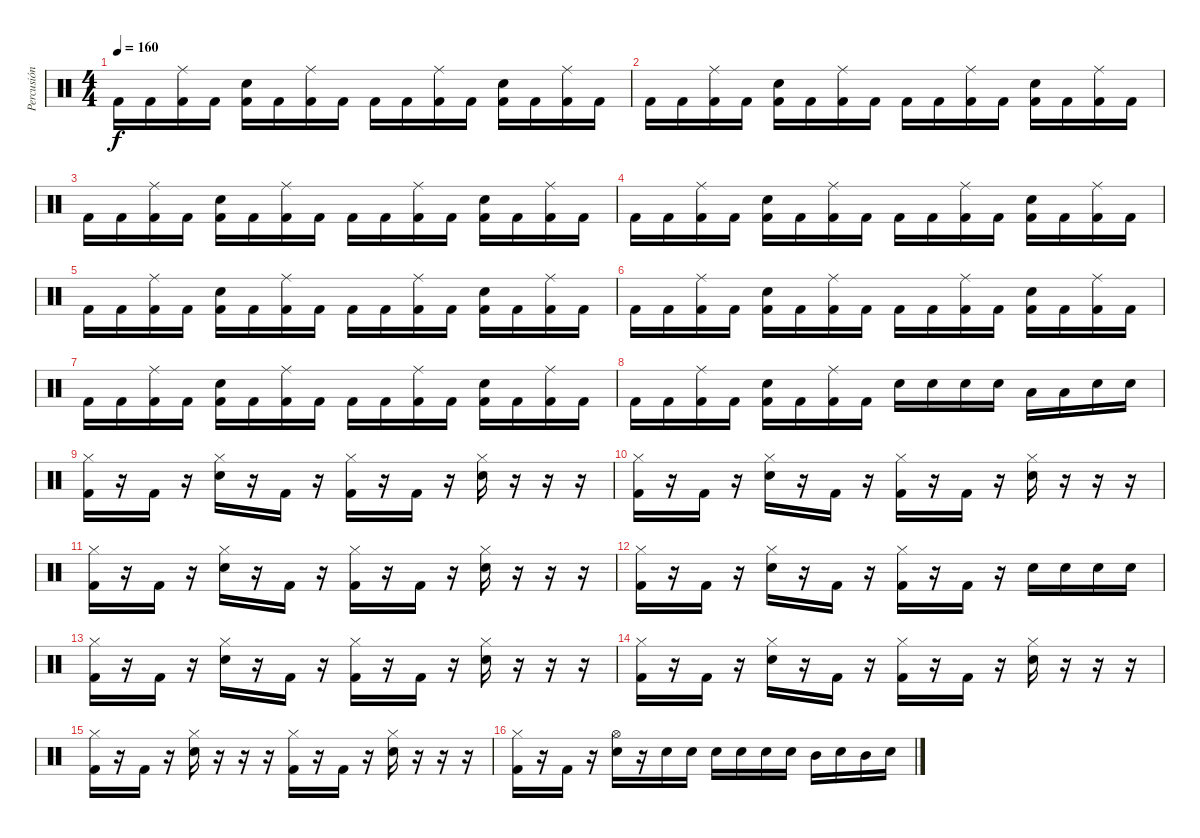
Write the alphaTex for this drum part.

\track ("Percusión" "Percusión") {instrument percussion}
\staff {score}
\articulation defaults
\ts (4 4)
\tempo 160
\clef neutral
\ks c "Kick (hit) 2".16{dy f} "Kick (hit) 2".16
("Ride (middle)" "Kick (hit) 2").16 "Kick (hit) 2".16 ("Snare (hit) 2" "Kick (hit) 2").16 "Kick (hit) 2".16 ("Ride (middle)" "Kick (hit) 2").16 "Kick (hit) 2".16 "Kick (hit) 2".16 "Kick (hit) 2".16 ("Ride (middle)" "Kick (hit) 2").16 "Kick (hit) 2".16 ("Snare (hit) 2" "Kick (hit) 2").16 "Kick (hit) 2".16 ("Ride (middle)" "Kick (hit) 2").16 "Kick (hit) 2".16 |
"Kick (hit) 2".16 "Kick (hit) 2".16 ("Ride (middle)" "Kick (hit) 2").16 "Kick (hit) 2".16 ("Snare (hit) 2" "Kick (hit) 2").16 "Kick (hit) 2".16 ("Ride (middle)" "Kick (hit) 2").16 "Kick (hit) 2".16 "Kick (hit) 2".16 "Kick (hit) 2".16 ("Ride (middle)" "Kick (hit) 2").16 "Kick (hit) 2".16 ("Snare (hit) 2" "Kick (hit) 2").16 "Kick (hit) 2".16 ("Ride (middle)" "Kick (hit) 2").16 "Kick (hit) 2".16 |
"Kick (hit) 2".16 "Kick (hit) 2".16 ("Ride (middle)" "Kick (hit) 2").16 "Kick (hit) 2".16 ("Snare (hit) 2" "Kick (hit) 2").16 "Kick (hit) 2".16 ("Ride (middle)" "Kick (hit) 2").16 "Kick (hit) 2".16 "Kick (hit) 2".16 "Kick (hit) 2".16 ("Ride (middle)" "Kick (hit) 2").16 "Kick (hit) 2".16 ("Snare (hit) 2" "Kick (hit) 2").16 "Kick (hit) 2".16 ("Ride (middle)" "Kick (hit) 2").16 "Kick (hit) 2".16 |
"Kick (hit) 2".16 "Kick (hit) 2".16 ("Ride (middle)" "Kick (hit) 2").16 "Kick (hit) 2".16 ("Snare (hit) 2" "Kick (hit) 2").16 "Kick (hit) 2".16 ("Ride (middle)" "Kick (hit) 2").16 "Kick (hit) 2".16 "Kick (hit) 2".16 "Kick (hit) 2".16 ("Ride (middle)" "Kick (hit) 2").16 "Kick (hit) 2".16 ("Snare (hit) 2" "Kick (hit) 2").16 "Kick (hit) 2".16 ("Ride (middle)" "Kick (hit) 2").16 "Kick (hit) 2".16 |
"Kick (hit) 2".16 "Kick (hit) 2".16 ("Ride (middle)" "Kick (hit) 2").16 "Kick (hit) 2".16 ("Snare (hit) 2" "Kick (hit) 2").16 "Kick (hit) 2".16 ("Ride (middle)" "Kick (hit) 2").16 "Kick (hit) 2".16 "Kick (hit) 2".16 "Kick (hit) 2".16 ("Ride (middle)" "Kick (hit) 2").16 "Kick (hit) 2".16 ("Snare (hit) 2" "Kick (hit) 2").16 "Kick (hit) 2".16 ("Ride (middle)" "Kick (hit) 2").16 "Kick (hit) 2".16 |
"Kick (hit) 2".16 "Kick (hit) 2".16 ("Ride (middle)" "Kick (hit) 2").16 "Kick (hit) 2".16 ("Snare (hit) 2" "Kick (hit) 2").16 "Kick (hit) 2".16 ("Ride (middle)" "Kick (hit) 2").16 "Kick (hit) 2".16 "Kick (hit) 2".16 "Kick (hit) 2".16 ("Ride (middle)" "Kick (hit) 2").16 "Kick (hit) 2".16 ("Snare (hit) 2" "Kick (hit) 2").16 "Kick (hit) 2".16 ("Ride (middle)" "Kick (hit) 2").16 "Kick (hit) 2".16 |
"Kick (hit) 2".16 "Kick (hit) 2".16 ("Ride (middle)" "Kick (hit) 2").16 "Kick (hit) 2".16 ("Snare (hit) 2" "Kick (hit) 2").16 "Kick (hit) 2".16 ("Ride (middle)" "Kick (hit) 2").16 "Kick (hit) 2".16 "Kick (hit) 2".16 "Kick (hit) 2".16 ("Ride (middle)" "Kick (hit) 2").16 "Kick (hit) 2".16 ("Snare (hit) 2" "Kick (hit) 2").16 "Kick (hit) 2".16 ("Ride (middle)" "Kick (hit) 2").16 "Kick (hit) 2".16 |
"Kick (hit) 2".16 "Kick (hit) 2".16 ("Ride (middle)" "Kick (hit) 2").16 "Kick (hit) 2".16 ("Snare (hit) 2" "Kick (hit) 2").16 "Kick (hit) 2".16 ("Ride (middle)" "Kick (hit) 2").16 "Kick (hit) 2".16 "Snare (hit) 2".16 "Snare (hit) 2".16 "Snare (hit) 2".16 "Snare (hit) 2".16 "Low Tom (hit)".16 "Low Tom (hit)".16 "Snare (hit) 2".16 "Snare (hit) 2".16 |
("Hi-Hat (closed)" "Kick (hit) 2").16 r.16 "Kick (hit) 2".16 r.16 ("Hi-Hat (closed)" "Snare (hit) 2").16 r.16 "Kick (hit) 2".16 r.16 ("Hi-Hat (closed)" "Kick (hit) 2").16 r.16 "Kick (hit) 2".16 r.16 ("Hi-Hat (closed)" "Snare (hit) 2").16 r.16 r.16 r.16 |
("Hi-Hat (closed)" "Kick (hit) 2").16 r.16 "Kick (hit) 2".16 r.16 ("Hi-Hat (closed)" "Snare (hit) 2").16 r.16 "Kick (hit) 2".16 r.16 ("Hi-Hat (closed)" "Kick (hit) 2").16 r.16 "Kick (hit) 2".16 r.16 ("Hi-Hat (closed)" "Snare (hit) 2").16 r.16 r.16 r.16 |
("Hi-Hat (closed)" "Kick (hit) 2").16 r.16 "Kick (hit) 2".16 r.16 ("Hi-Hat (closed)" "Snare (hit) 2").16 r.16 "Kick (hit) 2".16 r.16 ("Hi-Hat (closed)" "Kick (hit) 2").16 r.16 "Kick (hit) 2".16 r.16 ("Hi-Hat (closed)" "Snare (hit) 2").16 r.16 r.16 r.16 |
("Hi-Hat (closed)" "Kick (hit) 2").16 r.16 "Kick (hit) 2".16 r.16 ("Hi-Hat (closed)" "Snare (hit) 2").16 r.16 "Kick (hit) 2".16 r.16 ("Hi-Hat (closed)" "Kick (hit) 2").16 r.16 "Kick (hit) 2".16 r.16 "Snare (hit) 2".16 "Snare (hit) 2".16 "Snare (hit) 2".16 "Snare (hit) 2".16 |
("Hi-Hat (closed)" "Kick (hit) 2").16 r.16 "Kick (hit) 2".16 r.16 ("Hi-Hat (closed)" "Snare (hit) 2").16 r.16 "Kick (hit) 2".16 r.16 ("Hi-Hat (closed)" "Kick (hit) 2").16 r.16 "Kick (hit) 2".16 r.16 ("Hi-Hat (closed)" "Snare (hit) 2").16 r.16 r.16 r.16 |
("Hi-Hat (closed)" "Kick (hit) 2").16 r.16 "Kick (hit) 2".16 r.16 ("Hi-Hat (closed)" "Snare (hit) 2").16 r.16 "Kick (hit) 2".16 r.16 ("Hi-Hat (closed)" "Kick (hit) 2").16 r.16 "Kick (hit) 2".16 r.16 ("Hi-Hat (closed)" "Snare (hit) 2").16 r.16 r.16 r.16 |
("Hi-Hat (closed)" "Kick (hit) 2").16 r.16 "Kick (hit) 2".16 r.16 ("Hi-Hat (closed)" "Snare (hit) 2").16 r.16 r.16 r.16 ("Hi-Hat (closed)" "Kick (hit) 2").16 r.16 "Kick (hit) 2".16 r.16 ("Hi-Hat (closed)" "Snare (hit) 2").16 r.16 r.16 r.16 |
("Hi-Hat (closed)" "Kick (hit) 2").16 r.16 "Kick (hit) 2".16 r.16 ("Hi-Hat (open)" "Snare (hit) 2").16 r.16 "Snare (hit) 2".16 "Snare (hit) 2".16 "Snare (hit) 2".16 "Snare (hit) 2".16 "Snare (hit) 2".16 "Snare (hit) 2".16 "Mid Tom (hit)".16 "Snare (hit) 2".16 "Mid Tom (hit)".16 "Snare (hit) 2".16
